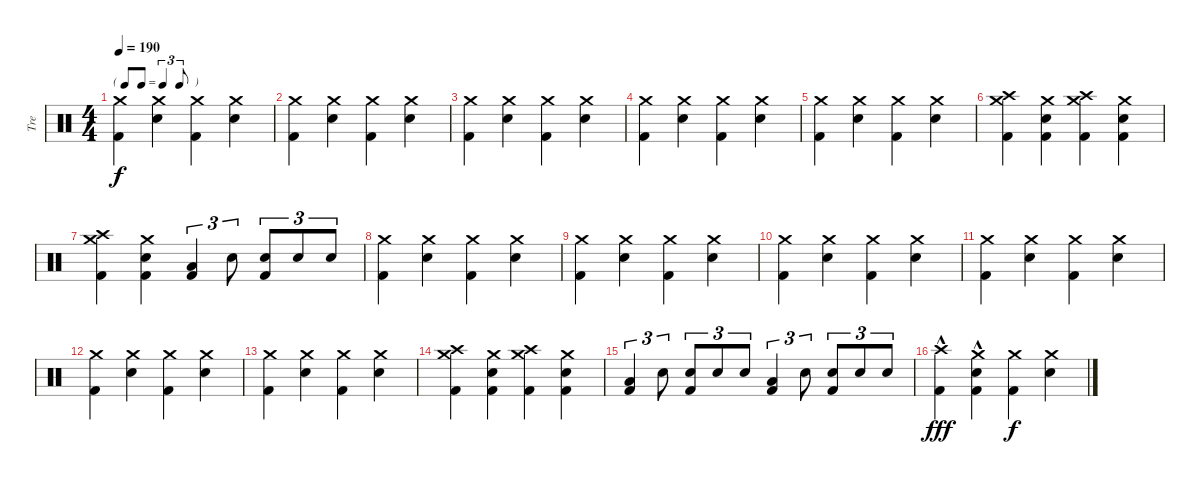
\track ("Tre" "Tre") {instrument percussion}
\staff {score}
\articulation defaults
\ts (4 4)
\tf triplet8th
\tempo 190
\clef neutral
\ks c
("Crash medium (hit)" "Kick (hit) 2").4{dy f} ("Crash medium (hit)" "Snare (hit) 2").4 ("Crash medium (hit)" "Kick (hit) 2").4 ("Crash medium (hit)" "Snare (hit) 2").4 |
("Crash medium (hit)" "Kick (hit) 2").4 ("Crash medium (hit)" "Snare (hit) 2").4 ("Crash medium (hit)" "Kick (hit) 2").4 ("Crash medium (hit)" "Snare (hit) 2").4 |
("Crash medium (hit)" "Kick (hit) 2").4 ("Crash medium (hit)" "Snare (hit) 2").4 ("Crash medium (hit)" "Kick (hit) 2").4 ("Crash medium (hit)" "Snare (hit) 2").4 |
("Crash medium (hit)" "Kick (hit) 2").4 ("Crash medium (hit)" "Snare (hit) 2").4 ("Crash medium (hit)" "Kick (hit) 2").4 ("Crash medium (hit)" "Snare (hit) 2").4 |
("Crash medium (hit)" "Kick (hit) 2").4 ("Crash medium (hit)" "Snare (hit) 2").4 ("Crash medium (hit)" "Kick (hit) 2").4 ("Crash medium (hit)" "Snare (hit) 2").4 |
("Crash medium (hit)" "Crash high (hit)" "Kick (hit) 2").4 ("Crash medium (hit)" "Snare (hit) 2" "Kick (hit) 2").4 ("Crash medium (hit)" "Crash high (hit)" "Kick (hit) 2").4 ("Crash medium (hit)" "Snare (hit) 2" "Kick (hit) 2").4 |
("Crash medium (hit)" "Crash high (hit)" "Kick (hit) 2").4 ("Crash medium (hit)" "Snare (hit) 2" "Kick (hit) 2").4 ("Low Tom (hit)" "Kick (hit) 2").4{tu (3 2)} "Snare (hit) 2".8{tu (3 2)} ("Snare (hit) 2" "Kick (hit) 2").8{tu (3 2)} "Snare (hit) 2".8{tu (3 2)} "Snare (hit) 2".8{tu (3 2)} |
("Crash medium (hit)" "Kick (hit) 2").4 ("Crash medium (hit)" "Snare (hit) 2").4 ("Crash medium (hit)" "Kick (hit) 2").4 ("Crash medium (hit)" "Snare (hit) 2").4 |
("Crash medium (hit)" "Kick (hit) 2").4 ("Crash medium (hit)" "Snare (hit) 2").4 ("Crash medium (hit)" "Kick (hit) 2").4 ("Crash medium (hit)" "Snare (hit) 2").4 |
("Crash medium (hit)" "Kick (hit) 2").4 ("Crash medium (hit)" "Snare (hit) 2").4 ("Crash medium (hit)" "Kick (hit) 2").4 ("Crash medium (hit)" "Snare (hit) 2").4 |
("Crash medium (hit)" "Kick (hit) 2").4 ("Crash medium (hit)" "Snare (hit) 2").4 ("Crash medium (hit)" "Kick (hit) 2").4 ("Crash medium (hit)" "Snare (hit) 2").4 |
("Crash medium (hit)" "Kick (hit) 2").4 ("Crash medium (hit)" "Snare (hit) 2").4 ("Crash medium (hit)" "Kick (hit) 2").4 ("Crash medium (hit)" "Snare (hit) 2").4 |
("Crash medium (hit)" "Kick (hit) 2").4 ("Crash medium (hit)" "Snare (hit) 2").4 ("Crash medium (hit)" "Kick (hit) 2").4 ("Crash medium (hit)" "Snare (hit) 2").4 |
("Crash medium (hit)" "Crash high (hit)" "Kick (hit) 2").4 ("Crash medium (hit)" "Snare (hit) 2" "Kick (hit) 2").4 ("Crash medium (hit)" "Crash high (hit)" "Kick (hit) 2").4 ("Crash medium (hit)" "Snare (hit) 2" "Kick (hit) 2").4 |
("Low Tom (hit)" "Kick (hit) 2").4{tu (3 2)} "Snare (hit) 2".8{tu (3 2)} ("Snare (hit) 2" "Kick (hit) 2").8{tu (3 2)} "Snare (hit) 2".8{tu (3 2)} "Snare (hit) 2".8{tu (3 2)} ("Low Tom (hit)" "Kick (hit) 2").4{tu (3 2)} "Snare (hit) 2".8{tu (3 2)} ("Snare (hit) 2" "Kick (hit) 2").8{tu (3 2)} "Snare (hit) 2".8{tu (3 2)} "Snare (hit) 2".8{tu (3 2)} |
("Crash high (hit)"{hac} "Kick (hit) 2"{hac}).4{dy fff} ("Crash medium (hit)"{hac} "Snare (hit) 2"{hac} "Kick (hit) 2"{hac}).4 ("Crash medium (hit)" "Kick (hit) 2").4{dy f} ("Crash medium (hit)" "Snare (hit) 2").4
